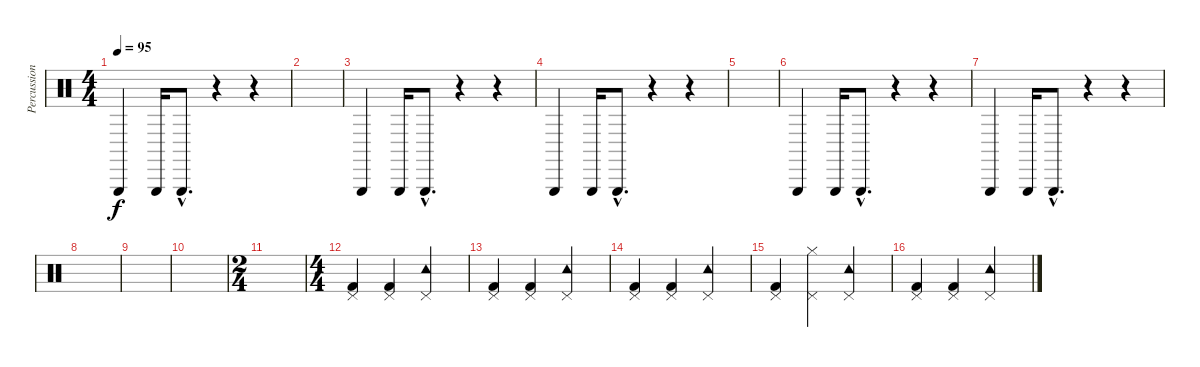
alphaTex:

\track ("Percussions" "Percussion") {instrument percussion}
\staff {score}
\articulation defaults
\ts (4 4)
\tempo 95
\clef neutral
\ks c "Triangle (hit)".4{dy f} "Triangle (hit)".16 "Triangle (hit)"{hac}.8{d}
r.4 r.4 |
|
"Triangle (hit)".4 "Triangle (hit)".16 "Triangle (hit)"{hac}.8{d} r.4 r.4 |
"Triangle (hit)".4 "Triangle (hit)".16 "Triangle (hit)"{hac}.8{d} r.4 r.4 |
|
"Triangle (hit)".4 "Triangle (hit)".16 "Triangle (hit)"{hac}.8{d} r.4 r.4 |
"Triangle (hit)".4 "Triangle (hit)".16 "Triangle (hit)"{hac}.8{d} r.4 r.4 |
|
|
|
\ts (2 4)
|
\ts (4 4)
("Kick (hit) 2" "Pedal Hi-Hat (hit)").4 ("Kick (hit) 2" "Pedal Hi-Hat (hit)").4 ("Tambourine (hit)" "Pedal Hi-Hat (hit)").2 |
("Kick (hit) 2" "Pedal Hi-Hat (hit)").4 ("Kick (hit) 2" "Pedal Hi-Hat (hit)").4 ("Tambourine (hit)" "Pedal Hi-Hat (hit)").2 |
("Kick (hit) 2" "Pedal Hi-Hat (hit)").4 ("Kick (hit) 2" "Pedal Hi-Hat (hit)").4 ("Tambourine (hit)" "Pedal Hi-Hat (hit)").2 |
("Kick (hit) 2" "Pedal Hi-Hat (hit)").4 ("Hi-Hat (closed)" "Pedal Hi-Hat (hit)").4 ("Tambourine (hit)" "Pedal Hi-Hat (hit)").2 |
("Kick (hit) 2" "Pedal Hi-Hat (hit)").4 ("Kick (hit) 2" "Pedal Hi-Hat (hit)").4 ("Tambourine (hit)" "Pedal Hi-Hat (hit)").2
